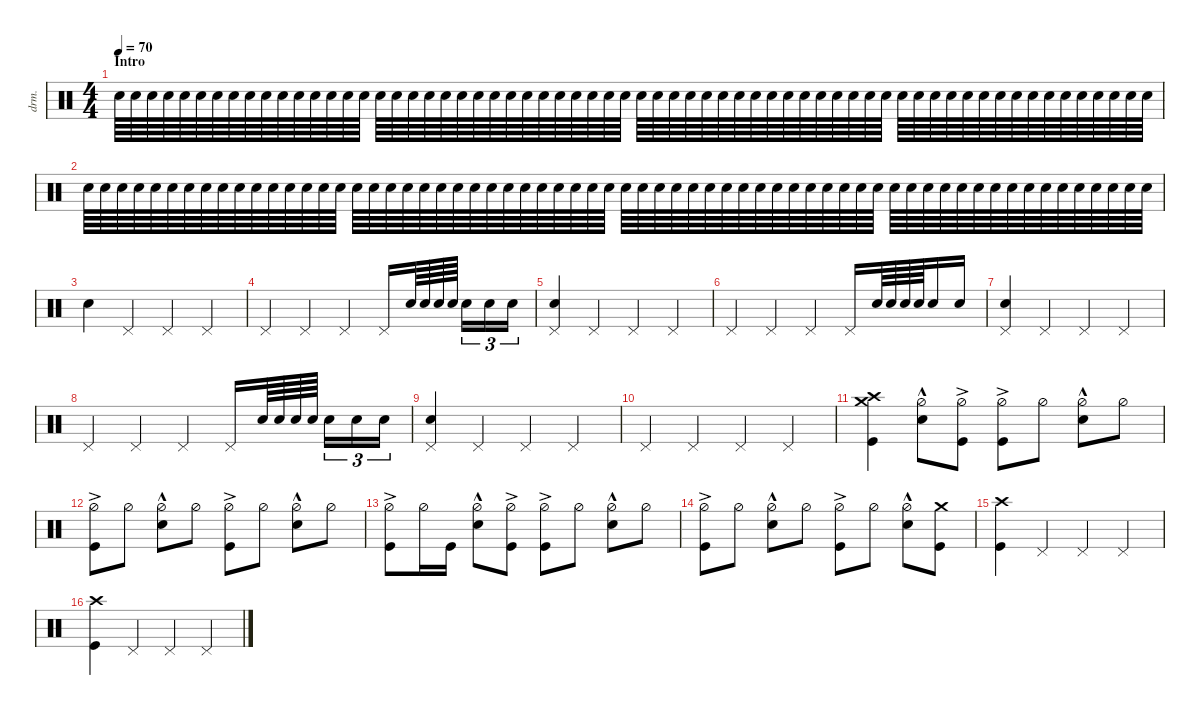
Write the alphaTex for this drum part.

\defaultSystemsLayout 4
\hideDynamics
\bracketExtendMode nobrackets
\otherSystemsTrackNameOrientation horizontal
\track ("Drums" "drm.") {defaultSystemsLayout 4 multiBarRest instrument percussion}
\staff {score}
\articulation defaults
\ts (4 4)
\section ("" "Intro")
\tempo 70
\clef neutral
\ks c "Snare (hit) 2".64{dy ppp} "Snare (hit) 2".64 "Snare (hit) 2".64 "Snare (hit) 2".64 "Snare (hit) 2".64 "Snare (hit) 2".64 "Snare (hit) 2".64 "Snare (hit) 2".64 "Snare (hit) 2".64 "Snare (hit) 2".64 "Snare (hit) 2".64 "Snare (hit) 2".64 "Snare (hit) 2".64 "Snare (hit) 2".64 "Snare (hit) 2".64 "Snare (hit) 2".64 "Snare (hit) 2".64 "Snare (hit) 2".64 "Snare (hit) 2".64 "Snare (hit) 2".64 "Snare (hit) 2".64 "Snare (hit) 2".64 "Snare (hit) 2".64 "Snare (hit) 2".64 "Snare (hit) 2".64 "Snare (hit) 2".64 "Snare (hit) 2".64 "Snare (hit) 2".64 "Snare (hit) 2".64 "Snare (hit) 2".64 "Snare (hit) 2".64 "Snare (hit) 2".64 "Snare (hit) 2".64 "Snare (hit) 2".64 "Snare (hit) 2".64 "Snare (hit) 2".64 "Snare (hit) 2".64 "Snare (hit) 2".64 "Snare (hit) 2".64 "Snare (hit) 2".64 "Snare (hit) 2".64 "Snare (hit) 2".64 "Snare (hit) 2".64 "Snare (hit) 2".64 "Snare (hit) 2".64 "Snare (hit) 2".64 "Snare (hit) 2".64 "Snare (hit) 2".64 "Snare (hit) 2".64 "Snare (hit) 2".64 "Snare (hit) 2".64 "Snare (hit) 2".64 "Snare (hit) 2".64 "Snare (hit) 2".64 "Snare (hit) 2".64 "Snare (hit) 2".64 "Snare (hit) 2".64 "Snare (hit) 2".64 "Snare (hit) 2".64 "Snare (hit) 2".64 "Snare (hit) 2".64 "Snare (hit) 2".64 "Snare (hit) 2".64 "Snare (hit) 2".64
|
"Snare (hit) 2".64 "Snare (hit) 2".64 "Snare (hit) 2".64 "Snare (hit) 2".64 "Snare (hit) 2".64 "Snare (hit) 2".64 "Snare (hit) 2".64 "Snare (hit) 2".64 "Snare (hit) 2".64 "Snare (hit) 2".64 "Snare (hit) 2".64 "Snare (hit) 2".64 "Snare (hit) 2".64 "Snare (hit) 2".64 "Snare (hit) 2".64 "Snare (hit) 2".64 "Snare (hit) 2".64 "Snare (hit) 2".64 "Snare (hit) 2".64 "Snare (hit) 2".64 "Snare (hit) 2".64 "Snare (hit) 2".64 "Snare (hit) 2".64 "Snare (hit) 2".64 "Snare (hit) 2".64 "Snare (hit) 2".64 "Snare (hit) 2".64 "Snare (hit) 2".64 "Snare (hit) 2".64 "Snare (hit) 2".64 "Snare (hit) 2".64 "Snare (hit) 2".64 "Snare (hit) 2".64 "Snare (hit) 2".64 "Snare (hit) 2".64 "Snare (hit) 2".64 "Snare (hit) 2".64 "Snare (hit) 2".64 "Snare (hit) 2".64 "Snare (hit) 2".64 "Snare (hit) 2".64 "Snare (hit) 2".64 "Snare (hit) 2".64 "Snare (hit) 2".64 "Snare (hit) 2".64 "Snare (hit) 2".64 "Snare (hit) 2".64 "Snare (hit) 2".64 "Snare (hit) 2".64 "Snare (hit) 2".64 "Snare (hit) 2".64 "Snare (hit) 2".64 "Snare (hit) 2".64 "Snare (hit) 2".64 "Snare (hit) 2".64 "Snare (hit) 2".64 "Snare (hit) 2".64 "Snare (hit) 2".64 "Snare (hit) 2".64 "Snare (hit) 2".64 "Snare (hit) 2".64 "Snare (hit) 2".64 "Snare (hit) 2".64 "Snare (hit) 2".64 |
"Snare (hit) 2".4{dy f} "Pedal Hi-Hat (hit)".4{dy mp} "Pedal Hi-Hat (hit)".4 "Pedal Hi-Hat (hit)".4 |
"Pedal Hi-Hat (hit)".4 "Pedal Hi-Hat (hit)".4 "Pedal Hi-Hat (hit)".4 "Pedal Hi-Hat (hit)".16 "Snare (hit) 2".64{dy pp} "Snare (hit) 2".64 "Snare (hit) 2".64 "Snare (hit) 2".64 "Snare (hit) 2".16{tu (3 2)} "Snare (hit) 2".16{tu (3 2)} "Snare (hit) 2".16{tu (3 2)} |
("Snare (hit) 2" "Pedal Hi-Hat (hit)").4{dy mp} "Pedal Hi-Hat (hit)".4 "Pedal Hi-Hat (hit)".4 "Pedal Hi-Hat (hit)".4 |
"Pedal Hi-Hat (hit)".4 "Pedal Hi-Hat (hit)".4 "Pedal Hi-Hat (hit)".4 "Pedal Hi-Hat (hit)".16 "Snare (hit) 2".64{dy pp} "Snare (hit) 2".64 "Snare (hit) 2".64 "Snare (hit) 2".64 "Snare (hit) 2".16 "Snare (hit) 2".16 |
("Snare (hit) 2" "Pedal Hi-Hat (hit)").4{dy mf} "Pedal Hi-Hat (hit)".4{dy mp} "Pedal Hi-Hat (hit)".4 "Pedal Hi-Hat (hit)".4 |
"Pedal Hi-Hat (hit)".4 "Pedal Hi-Hat (hit)".4 "Pedal Hi-Hat (hit)".4 "Pedal Hi-Hat (hit)".16 "Snare (hit) 2".64{dy pp} "Snare (hit) 2".64 "Snare (hit) 2".64 "Snare (hit) 2".64 "Snare (hit) 2".16{tu (3 2)} "Snare (hit) 2".16{tu (3 2)} "Snare (hit) 2".16{tu (3 2)} |
("Snare (hit) 2" "Pedal Hi-Hat (hit)").4{dy mp} "Pedal Hi-Hat (hit)".4 "Pedal Hi-Hat (hit)".4 "Pedal Hi-Hat (hit)".4 |
"Pedal Hi-Hat (hit)".4 "Pedal Hi-Hat (hit)".4 "Pedal Hi-Hat (hit)".4 "Pedal Hi-Hat (hit)".4 |
("Crash high (hit)" "Kick (hit)" "Crash medium (hit)").4{dy f} ("Hi-Hat (half)"{hac} "Snare (hit) 2").8 ("Kick (hit)" "Hi-Hat (half)"{ac}).8 ("Kick (hit)" "Hi-Hat (half)"{ac}).8 "Hi-Hat (half)".8 ("Hi-Hat (half)"{hac} "Snare (hit) 2").8 "Hi-Hat (half)".8 |
("Kick (hit)" "Hi-Hat (half)"{ac}).8 "Hi-Hat (half)".8 ("Hi-Hat (half)"{hac} "Snare (hit) 2").8 "Hi-Hat (half)".8 ("Kick (hit)" "Hi-Hat (half)"{ac}).8 "Hi-Hat (half)".8 ("Hi-Hat (half)"{hac} "Snare (hit) 2").8 "Hi-Hat (half)".8 |
("Kick (hit)" "Hi-Hat (half)"{ac}).8 "Hi-Hat (half)".16 "Kick (hit)".16 ("Snare (hit) 2" "Hi-Hat (half)"{hac}).8 ("Kick (hit)" "Hi-Hat (half)"{ac}).8 ("Kick (hit)" "Hi-Hat (half)"{ac}).8 "Hi-Hat (half)".8 ("Snare (hit) 2" "Hi-Hat (half)"{hac}).8 "Hi-Hat (half)".8 |
("Kick (hit)" "Hi-Hat (half)"{ac}).8 "Hi-Hat (half)".8 ("Hi-Hat (half)"{hac} "Snare (hit) 2").8 "Hi-Hat (half)".8 ("Kick (hit)" "Hi-Hat (half)"{ac}).8 "Hi-Hat (half)".8 ("Hi-Hat (half)"{hac} "Snare (hit) 2").8 ("Kick (hit)" "Crash medium (hit)").8 |
("Crash high (hit)" "Kick (hit)").4 "Pedal Hi-Hat (hit)".4{dy p} "Pedal Hi-Hat (hit)".4 "Pedal Hi-Hat (hit)".4 |
("Crash high (hit)" "Kick (hit)").4{dy f} "Pedal Hi-Hat (hit)".4{dy p} "Pedal Hi-Hat (hit)".4 "Pedal Hi-Hat (hit)".4
